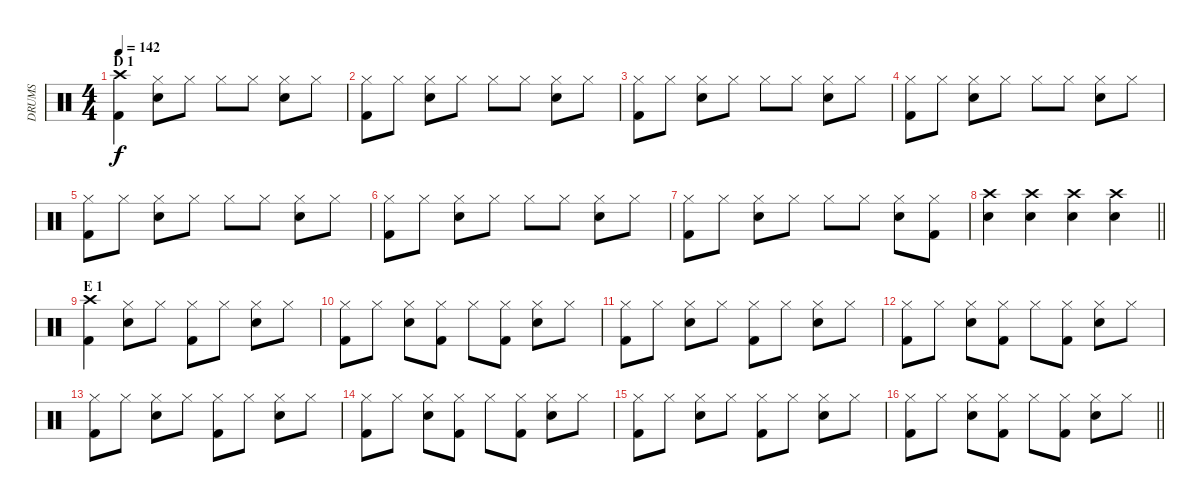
\track ("DRUMS" "DRUMS") {instrument percussion}
\staff {score}
\articulation defaults
\ts (4 4)
\section ("" "D 1")
\tempo 142
\clef neutral
\ks c
("Crash high (hit)" "Kick (hit) 2").4{dy f} ("Hi-Hat (closed)" "Snare (hit) 2").8 "Hi-Hat (closed)".8 "Hi-Hat (closed)".8 "Hi-Hat (closed)".8 ("Hi-Hat (closed)" "Snare (hit) 2").8 "Hi-Hat (closed)".8 |
("Hi-Hat (closed)" "Kick (hit) 2").8 "Hi-Hat (closed)".8 ("Hi-Hat (closed)" "Snare (hit) 2").8 "Hi-Hat (closed)".8 "Hi-Hat (closed)".8 "Hi-Hat (closed)".8 ("Hi-Hat (closed)" "Snare (hit) 2").8 "Hi-Hat (closed)".8 |
("Hi-Hat (closed)" "Kick (hit) 2").8 "Hi-Hat (closed)".8 ("Hi-Hat (closed)" "Snare (hit) 2").8 "Hi-Hat (closed)".8 "Hi-Hat (closed)".8 "Hi-Hat (closed)".8 ("Hi-Hat (closed)" "Snare (hit) 2").8 "Hi-Hat (closed)".8 |
("Hi-Hat (closed)" "Kick (hit) 2").8 "Hi-Hat (closed)".8 ("Hi-Hat (closed)" "Snare (hit) 2").8 "Hi-Hat (closed)".8 "Hi-Hat (closed)".8 "Hi-Hat (closed)".8 ("Hi-Hat (closed)" "Snare (hit) 2").8 "Hi-Hat (closed)".8 |
("Hi-Hat (closed)" "Kick (hit) 2").8 "Hi-Hat (closed)".8 ("Hi-Hat (closed)" "Snare (hit) 2").8 "Hi-Hat (closed)".8 "Hi-Hat (closed)".8 "Hi-Hat (closed)".8 ("Hi-Hat (closed)" "Snare (hit) 2").8 "Hi-Hat (closed)".8 |
("Hi-Hat (closed)" "Kick (hit) 2").8 "Hi-Hat (closed)".8 ("Hi-Hat (closed)" "Snare (hit) 2").8 "Hi-Hat (closed)".8 "Hi-Hat (closed)".8 "Hi-Hat (closed)".8 ("Hi-Hat (closed)" "Snare (hit) 2").8 "Hi-Hat (closed)".8 |
("Hi-Hat (closed)" "Kick (hit) 2").8 "Hi-Hat (closed)".8 ("Hi-Hat (closed)" "Snare (hit) 2").8 "Hi-Hat (closed)".8 "Hi-Hat (closed)".8 "Hi-Hat (closed)".8 ("Hi-Hat (closed)" "Snare (hit) 2").8 ("Hi-Hat (closed)" "Kick (hit) 2").8 |
\barLineRight lightlight
("Crash high (hit)" "Snare (hit) 2").4 ("Crash high (hit)" "Snare (hit) 2").4 ("Crash high (hit)" "Snare (hit) 2").4 ("Crash high (hit)" "Snare (hit) 2").4 |
\section ("" "E 1")
("Crash high (hit)" "Kick (hit) 2").4 ("Hi-Hat (closed)" "Snare (hit) 2").8 "Hi-Hat (closed)".8 ("Hi-Hat (closed)" "Kick (hit) 2").8 "Hi-Hat (closed)".8 ("Hi-Hat (closed)" "Snare (hit) 2").8 "Hi-Hat (closed)".8 |
("Hi-Hat (closed)" "Kick (hit) 2").8 "Hi-Hat (closed)".8 ("Hi-Hat (closed)" "Snare (hit) 2").8 ("Hi-Hat (closed)" "Kick (hit) 2").8 "Hi-Hat (closed)".8 ("Hi-Hat (closed)" "Kick (hit) 2").8 ("Hi-Hat (closed)" "Snare (hit) 2").8 "Hi-Hat (closed)".8 |
("Hi-Hat (closed)" "Kick (hit) 2").8 "Hi-Hat (closed)".8 ("Hi-Hat (closed)" "Snare (hit) 2").8 "Hi-Hat (closed)".8 ("Hi-Hat (closed)" "Kick (hit) 2").8 "Hi-Hat (closed)".8 ("Hi-Hat (closed)" "Snare (hit) 2").8 "Hi-Hat (closed)".8 |
("Hi-Hat (closed)" "Kick (hit) 2").8 "Hi-Hat (closed)".8 ("Hi-Hat (closed)" "Snare (hit) 2").8 ("Hi-Hat (closed)" "Kick (hit) 2").8 "Hi-Hat (closed)".8 ("Hi-Hat (closed)" "Kick (hit) 2").8 ("Hi-Hat (closed)" "Snare (hit) 2").8 "Hi-Hat (closed)".8 |
("Hi-Hat (closed)" "Kick (hit) 2").8 "Hi-Hat (closed)".8 ("Hi-Hat (closed)" "Snare (hit) 2").8 "Hi-Hat (closed)".8 ("Hi-Hat (closed)" "Kick (hit) 2").8 "Hi-Hat (closed)".8 ("Hi-Hat (closed)" "Snare (hit) 2").8 "Hi-Hat (closed)".8 |
("Hi-Hat (closed)" "Kick (hit) 2").8 "Hi-Hat (closed)".8 ("Hi-Hat (closed)" "Snare (hit) 2").8 ("Hi-Hat (closed)" "Kick (hit) 2").8 "Hi-Hat (closed)".8 ("Hi-Hat (closed)" "Kick (hit) 2").8 ("Hi-Hat (closed)" "Snare (hit) 2").8 "Hi-Hat (closed)".8 |
("Hi-Hat (closed)" "Kick (hit) 2").8 "Hi-Hat (closed)".8 ("Hi-Hat (closed)" "Snare (hit) 2").8 "Hi-Hat (closed)".8 ("Hi-Hat (closed)" "Kick (hit) 2").8 "Hi-Hat (closed)".8 ("Hi-Hat (closed)" "Snare (hit) 2").8 "Hi-Hat (closed)".8 |
\barLineRight lightlight
("Hi-Hat (closed)" "Kick (hit) 2").8 "Hi-Hat (closed)".8 ("Hi-Hat (closed)" "Snare (hit) 2").8 ("Hi-Hat (closed)" "Kick (hit) 2").8 "Hi-Hat (closed)".8 ("Hi-Hat (closed)" "Kick (hit) 2").8 ("Hi-Hat (closed)" "Snare (hit) 2").8 "Hi-Hat (closed)".8
